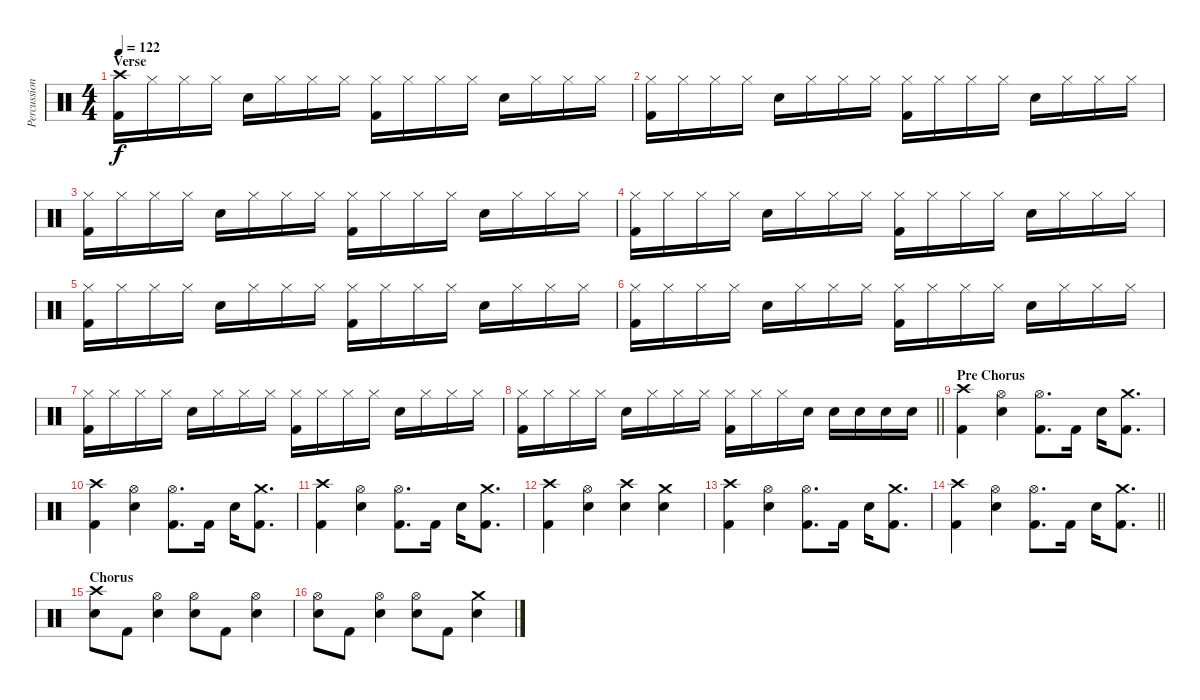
\track ("Percussion" "Percussion") {instrument percussion}
\staff {score}
\articulation defaults
\ts (4 4)
\section ("" "Verse")
\tempo 122
\clef neutral
\ks c
("Crash high (hit)" "Kick (hit) 2").16{dy f} "Hi-Hat (closed)".16 "Hi-Hat (closed)".16 "Hi-Hat (closed)".16 "Electric Snare (hit)".16 "Hi-Hat (closed)".16 "Hi-Hat (closed)".16 "Hi-Hat (closed)".16 ("Hi-Hat (closed)" "Kick (hit) 2").16 "Hi-Hat (closed)".16 "Hi-Hat (closed)".16 "Hi-Hat (closed)".16 "Electric Snare (hit)".16 "Hi-Hat (closed)".16 "Hi-Hat (closed)".16 "Hi-Hat (closed)".16 |
("Hi-Hat (closed)" "Kick (hit) 2").16 "Hi-Hat (closed)".16 "Hi-Hat (closed)".16 "Hi-Hat (closed)".16 "Electric Snare (hit)".16 "Hi-Hat (closed)".16 "Hi-Hat (closed)".16 "Hi-Hat (closed)".16 ("Hi-Hat (closed)" "Kick (hit) 2").16 "Hi-Hat (closed)".16 "Hi-Hat (closed)".16 "Hi-Hat (closed)".16 "Electric Snare (hit)".16 "Hi-Hat (closed)".16 "Hi-Hat (closed)".16 "Hi-Hat (closed)".16 |
("Hi-Hat (closed)" "Kick (hit) 2").16 "Hi-Hat (closed)".16 "Hi-Hat (closed)".16 "Hi-Hat (closed)".16 "Electric Snare (hit)".16 "Hi-Hat (closed)".16 "Hi-Hat (closed)".16 "Hi-Hat (closed)".16 ("Hi-Hat (closed)" "Kick (hit) 2").16 "Hi-Hat (closed)".16 "Hi-Hat (closed)".16 "Hi-Hat (closed)".16 "Electric Snare (hit)".16 "Hi-Hat (closed)".16 "Hi-Hat (closed)".16 "Hi-Hat (closed)".16 |
("Hi-Hat (closed)" "Kick (hit) 2").16 "Hi-Hat (closed)".16 "Hi-Hat (closed)".16 "Hi-Hat (closed)".16 "Electric Snare (hit)".16 "Hi-Hat (closed)".16 "Hi-Hat (closed)".16 "Hi-Hat (closed)".16 ("Hi-Hat (closed)" "Kick (hit) 2").16 "Hi-Hat (closed)".16 "Hi-Hat (closed)".16 "Hi-Hat (closed)".16 "Electric Snare (hit)".16 "Hi-Hat (closed)".16 "Hi-Hat (closed)".16 "Hi-Hat (closed)".16 |
("Hi-Hat (closed)" "Kick (hit) 2").16 "Hi-Hat (closed)".16 "Hi-Hat (closed)".16 "Hi-Hat (closed)".16 "Electric Snare (hit)".16 "Hi-Hat (closed)".16 "Hi-Hat (closed)".16 "Hi-Hat (closed)".16 ("Hi-Hat (closed)" "Kick (hit) 2").16 "Hi-Hat (closed)".16 "Hi-Hat (closed)".16 "Hi-Hat (closed)".16 "Electric Snare (hit)".16 "Hi-Hat (closed)".16 "Hi-Hat (closed)".16 "Hi-Hat (closed)".16 |
("Hi-Hat (closed)" "Kick (hit) 2").16 "Hi-Hat (closed)".16 "Hi-Hat (closed)".16 "Hi-Hat (closed)".16 "Electric Snare (hit)".16 "Hi-Hat (closed)".16 "Hi-Hat (closed)".16 "Hi-Hat (closed)".16 ("Hi-Hat (closed)" "Kick (hit) 2").16 "Hi-Hat (closed)".16 "Hi-Hat (closed)".16 "Hi-Hat (closed)".16 "Electric Snare (hit)".16 "Hi-Hat (closed)".16 "Hi-Hat (closed)".16 "Hi-Hat (closed)".16 |
("Hi-Hat (closed)" "Kick (hit) 2").16 "Hi-Hat (closed)".16 "Hi-Hat (closed)".16 "Hi-Hat (closed)".16 "Electric Snare (hit)".16 "Hi-Hat (closed)".16 "Hi-Hat (closed)".16 "Hi-Hat (closed)".16 ("Hi-Hat (closed)" "Kick (hit) 2").16 "Hi-Hat (closed)".16 "Hi-Hat (closed)".16 "Hi-Hat (closed)".16 "Electric Snare (hit)".16 "Hi-Hat (closed)".16 "Hi-Hat (closed)".16 "Hi-Hat (closed)".16 |
\barLineRight lightlight
("Hi-Hat (closed)" "Kick (hit) 2").16 "Hi-Hat (closed)".16 "Hi-Hat (closed)".16 "Hi-Hat (closed)".16 "Electric Snare (hit)".16 "Hi-Hat (closed)".16 "Hi-Hat (closed)".16 "Hi-Hat (closed)".16 ("Hi-Hat (closed)" "Kick (hit) 2").16 "Hi-Hat (closed)".16 "Hi-Hat (closed)".16 "Electric Snare (hit)".16 "Electric Snare (hit)".16 "Electric Snare (hit)".16 "Electric Snare (hit)".16 "Electric Snare (hit)".16 |
\section ("" "Pre Chorus")
("Crash high (hit)" "Kick (hit) 2").4 ("Hi-Hat (open)" "Electric Snare (hit)").4 ("Hi-Hat (open)" "Kick (hit) 2").8{d} "Kick (hit) 2".16 "Electric Snare (hit)".16 ("Crash medium (hit)" "Kick (hit) 2").8{d} |
("Crash high (hit)" "Kick (hit) 2").4 ("Hi-Hat (open)" "Electric Snare (hit)").4 ("Hi-Hat (open)" "Kick (hit) 2").8{d} "Kick (hit) 2".16 "Electric Snare (hit)".16 ("Crash medium (hit)" "Kick (hit) 2").8{d} |
("Crash high (hit)" "Kick (hit) 2").4 ("Hi-Hat (open)" "Electric Snare (hit)").4 ("Hi-Hat (open)" "Kick (hit) 2").8{d} "Kick (hit) 2".16 "Electric Snare (hit)".16 ("Crash medium (hit)" "Kick (hit) 2").8{d} |
("Crash high (hit)" "Kick (hit) 2").4 ("Hi-Hat (open)" "Electric Snare (hit)").4 ("Crash high (hit)" "Electric Snare (hit)").4 ("Crash medium (hit)" "Electric Snare (hit)").4 |
("Crash high (hit)" "Kick (hit) 2").4 ("Hi-Hat (open)" "Electric Snare (hit)").4 ("Hi-Hat (open)" "Kick (hit) 2").8{d} "Kick (hit) 2".16 "Electric Snare (hit)".16 ("Crash medium (hit)" "Kick (hit) 2").8{d} |
\barLineRight lightlight
("Crash high (hit)" "Kick (hit) 2").4 ("Hi-Hat (open)" "Electric Snare (hit)").4 ("Hi-Hat (open)" "Kick (hit) 2").8{d} "Kick (hit) 2".16 "Electric Snare (hit)".16 ("Crash medium (hit)" "Kick (hit) 2").8{d} |
\section ("" "Chorus")
("Crash high (hit)" "Electric Snare (hit)").8 "Kick (hit) 2".8 ("Hi-Hat (open)" "Electric Snare (hit)").4 ("Hi-Hat (open)" "Electric Snare (hit)").8 "Kick (hit) 2".8 ("Hi-Hat (open)" "Electric Snare (hit)").4 |
("Hi-Hat (open)" "Electric Snare (hit)").8 "Kick (hit) 2".8 ("Hi-Hat (open)" "Electric Snare (hit)").4 ("Hi-Hat (open)" "Electric Snare (hit)").8 "Kick (hit) 2".8 ("Crash medium (hit)" "Electric Snare (hit)").4
